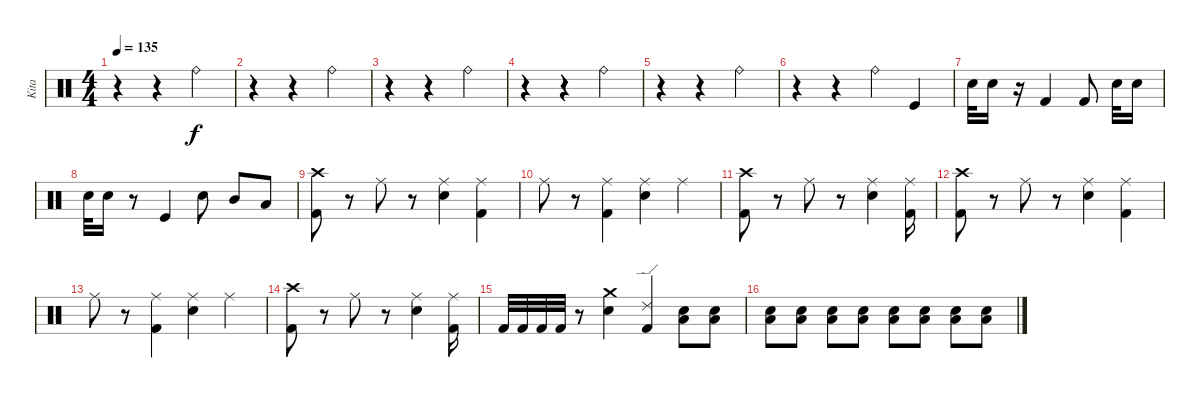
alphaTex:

\track ("Kita" "Kita") {instrument percussion}
\staff {score}
\articulation defaults
\ts (4 4)
\tempo 135
\clef neutral
\ks c
r.4{dy f} r.4 "Ride (bell)".4 |
r.4 r.4 "Ride (bell)".4 |
r.4 r.4 "Ride (bell)".4 |
r.4 r.4 "Ride (bell)".4 |
r.4 r.4 "Ride (bell)".4 |
r.4 r.4 "Ride (bell)".4 "Kick (hit)".4 |
"Snare (hit) 2".32 "Snare (hit) 2".16 r.16 "Kick (hit) 2".4 "Kick (hit) 2".8 "Snare (hit) 2".32 "Snare (hit) 2".16 |
"Snare (hit) 2".32 "Snare (hit) 2".16 r.8 "Kick (hit)".4 "Snare (hit) 2".8 "Mid Tom (hit)".8 "Low Tom (hit)".8 |
("Crash high (hit)" "Kick (hit) 2").8 r.8 "Ride (middle)".8 r.8 ("Ride (middle)" "Snare (hit) 2").4 ("Ride (middle)" "Kick (hit) 2").4 |
"Ride (middle)".8 r.8 ("Ride (middle)" "Kick (hit) 2").4 ("Ride (middle)" "Snare (hit) 2").4 "Ride (middle)".4 |
("Crash high (hit)" "Kick (hit) 2").8 r.8 "Ride (middle)".8 r.8 ("Ride (middle)" "Snare (hit) 2").4 ("Ride (middle)" "Kick (hit) 2").16 |
("Crash high (hit)" "Kick (hit) 2").8 r.8 "Ride (middle)".8 r.8 ("Ride (middle)" "Snare (hit) 2").4 ("Ride (middle)" "Kick (hit) 2").4 |
"Ride (middle)".8 r.8 ("Ride (middle)" "Kick (hit) 2").4 ("Ride (middle)" "Snare (hit) 2").4 "Ride (middle)".4 |
("Crash high (hit)" "Kick (hit) 2").8 r.8 "Ride (middle)".8 r.8 ("Ride (middle)" "Snare (hit) 2").4 ("Ride (middle)" "Kick (hit) 2").16 |
"Kick (hit) 2".32 "Kick (hit) 2".32 "Kick (hit) 2".32 "Kick (hit) 2".32 r.8 ("Snare (hit) 2" "Crash medium (hit)").4 ("Ride (edge) 2" "Kick (hit) 2").4 ("Snare (hit) 2" "Low Tom (hit)").8 ("Snare (hit) 2" "Low Tom (hit)").8 |
("Snare (hit) 2" "Low Tom (hit)").8 ("Snare (hit) 2" "Low Tom (hit)").8 ("Snare (hit) 2" "Low Tom (hit)").8 ("Snare (hit) 2" "Low Tom (hit)").8 ("Snare (hit) 2" "Low Tom (hit)").8 ("Snare (hit) 2" "Low Tom (hit)").8 ("Snare (hit) 2" "Low Tom (hit)").8 ("Snare (hit) 2" "Low Tom (hit)").8
